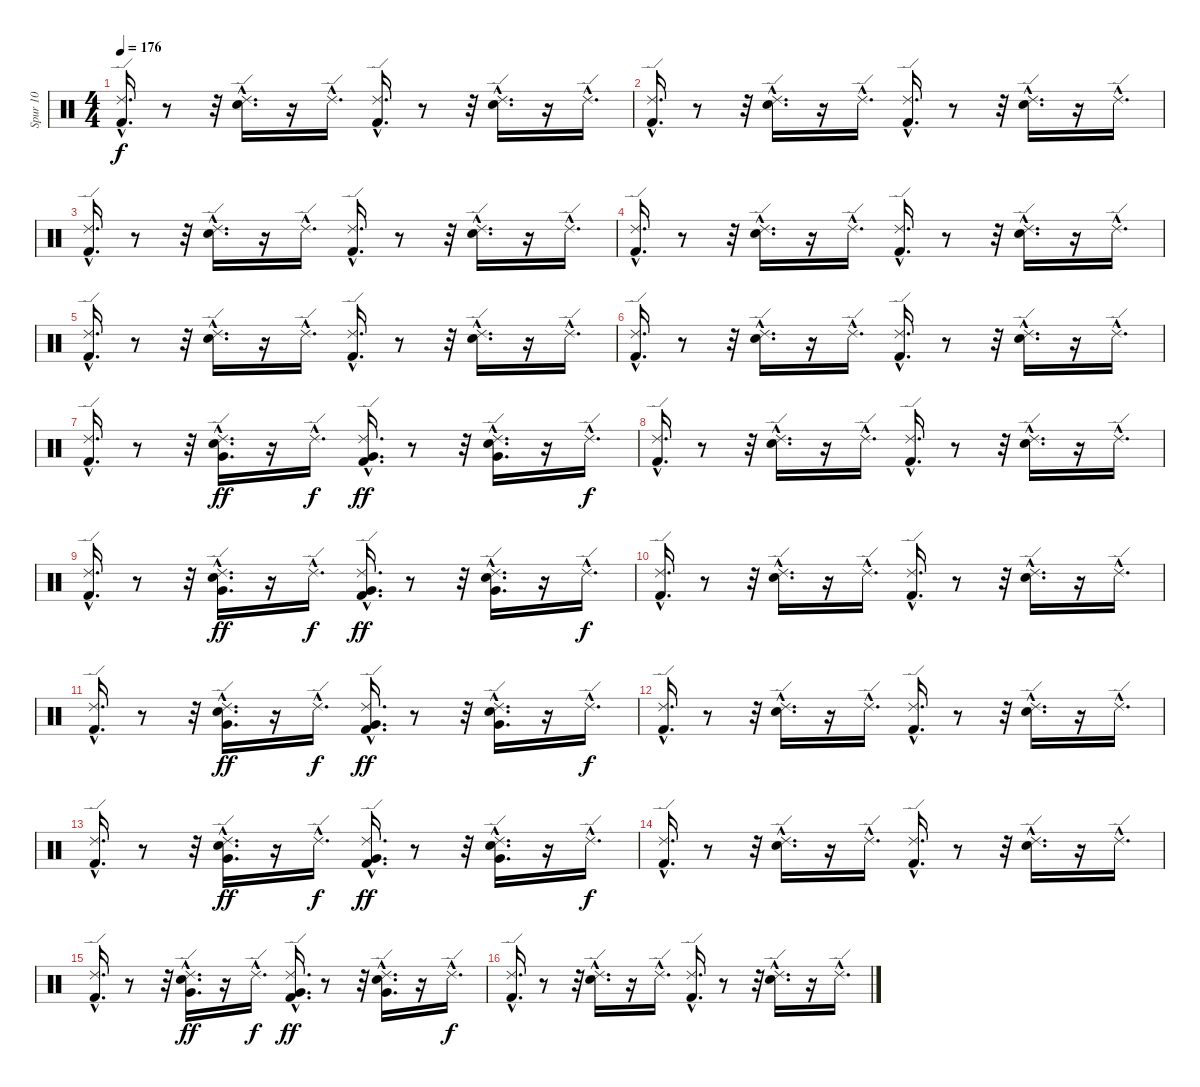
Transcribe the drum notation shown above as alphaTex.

\track ("Spur 10" "Spur 10") {instrument percussion}
\staff {score}
\articulation defaults
\ts (4 4)
\tempo 176
\clef neutral
\ks c
("Kick (hit) 2"{hac} "Ride (edge) 2"{hac}).16{d dy f} r.8 r.32 ("Snare (hit) 2"{hac} "Ride (edge) 2"{hac}).16{d} r.16 "Ride (edge) 2"{hac}.16{d} ("Kick (hit) 2"{hac} "Ride (edge) 2"{hac}).16{d} r.8 r.32 ("Snare (hit) 2"{hac} "Ride (edge) 2"{hac}).16{d} r.16 "Ride (edge) 2"{hac}.16{d} |
("Kick (hit) 2"{hac} "Ride (edge) 2"{hac}).16{d} r.8 r.32 ("Snare (hit) 2"{hac} "Ride (edge) 2"{hac}).16{d} r.16 "Ride (edge) 2"{hac}.16{d} ("Kick (hit) 2"{hac} "Ride (edge) 2"{hac}).16{d} r.8 r.32 ("Snare (hit) 2"{hac} "Ride (edge) 2"{hac}).16{d} r.16 "Ride (edge) 2"{hac}.16{d} |
("Kick (hit) 2"{hac} "Ride (edge) 2"{hac}).16{d} r.8 r.32 ("Snare (hit) 2"{hac} "Ride (edge) 2"{hac}).16{d} r.16 "Ride (edge) 2"{hac}.16{d} ("Kick (hit) 2"{hac} "Ride (edge) 2"{hac}).16{d} r.8 r.32 ("Snare (hit) 2"{hac} "Ride (edge) 2"{hac}).16{d} r.16 "Ride (edge) 2"{hac}.16{d} |
("Kick (hit) 2"{hac} "Ride (edge) 2"{hac}).16{d} r.8 r.32 ("Snare (hit) 2"{hac} "Ride (edge) 2"{hac}).16{d} r.16 "Ride (edge) 2"{hac}.16{d} ("Kick (hit) 2"{hac} "Ride (edge) 2"{hac}).16{d} r.8 r.32 ("Snare (hit) 2"{hac} "Ride (edge) 2"{hac}).16{d} r.16 "Ride (edge) 2"{hac}.16{d} |
("Kick (hit) 2"{hac} "Ride (edge) 2"{hac}).16{d} r.8 r.32 ("Snare (hit) 2"{hac} "Ride (edge) 2"{hac}).16{d} r.16 "Ride (edge) 2"{hac}.16{d} ("Kick (hit) 2"{hac} "Ride (edge) 2"{hac}).16{d} r.8 r.32 ("Snare (hit) 2"{hac} "Ride (edge) 2"{hac}).16{d} r.16 "Ride (edge) 2"{hac}.16{d} |
("Kick (hit) 2"{hac} "Ride (edge) 2"{hac}).16{d} r.8 r.32 ("Snare (hit) 2"{hac} "Ride (edge) 2"{hac}).16{d} r.16 "Ride (edge) 2"{hac}.16{d} ("Kick (hit) 2"{hac} "Ride (edge) 2"{hac}).16{d} r.8 r.32 ("Snare (hit) 2"{hac} "Ride (edge) 2"{hac}).16{d} r.16 "Ride (edge) 2"{hac}.16{d} |
("Kick (hit) 2"{hac} "Ride (edge) 2"{hac}).16{d} r.8 r.32 ("Snare (hit) 2"{hac} "Ride (edge) 2"{hac} "Very Low Tom (hit)"{hac}).16{d dy ff} r.16 "Ride (edge) 2"{hac}.16{d dy f} ("Kick (hit) 2"{hac} "Ride (edge) 2"{hac} "Very Low Tom (hit)"{hac}).16{d dy ff} r.8 r.32 ("Snare (hit) 2"{hac} "Ride (edge) 2"{hac} "Very Low Tom (hit)"{hac}).16{d} r.16 "Ride (edge) 2"{hac}.16{d dy f} |
("Ride (edge) 2"{hac} "Kick (hit) 2"{hac}).16{d} r.8 r.32 ("Ride (edge) 2"{hac} "Snare (hit) 2"{hac}).16{d} r.16 "Ride (edge) 2"{hac}.16{d} ("Ride (edge) 2"{hac} "Kick (hit) 2"{hac}).16{d} r.8 r.32 ("Ride (edge) 2"{hac} "Snare (hit) 2"{hac}).16{d} r.16 "Ride (edge) 2"{hac}.16{d} |
("Ride (edge) 2"{hac} "Kick (hit) 2"{hac}).16{d} r.8 r.32 ("Ride (edge) 2"{hac} "Snare (hit) 2"{hac} "Very Low Tom (hit)"{hac}).16{d dy ff} r.16 "Ride (edge) 2"{hac}.16{d dy f} ("Ride (edge) 2"{hac} "Kick (hit) 2"{hac} "Very Low Tom (hit)"{hac}).16{d dy ff} r.8 r.32 ("Ride (edge) 2"{hac} "Snare (hit) 2"{hac} "Very Low Tom (hit)"{hac}).16{d} r.16 "Ride (edge) 2"{hac}.16{d dy f} |
("Ride (edge) 2"{hac} "Kick (hit) 2"{hac}).16{d} r.8 r.32 ("Ride (edge) 2"{hac} "Snare (hit) 2"{hac}).16{d} r.16 "Ride (edge) 2"{hac}.16{d} ("Ride (edge) 2"{hac} "Kick (hit) 2"{hac}).16{d} r.8 r.32 ("Ride (edge) 2"{hac} "Snare (hit) 2"{hac}).16{d} r.16 "Ride (edge) 2"{hac}.16{d} |
("Ride (edge) 2"{hac} "Kick (hit) 2"{hac}).16{d} r.8 r.32 ("Ride (edge) 2"{hac} "Snare (hit) 2"{hac} "Very Low Tom (hit)"{hac}).16{d dy ff} r.16 "Ride (edge) 2"{hac}.16{d dy f} ("Ride (edge) 2"{hac} "Kick (hit) 2"{hac} "Very Low Tom (hit)"{hac}).16{d dy ff} r.8 r.32 ("Ride (edge) 2"{hac} "Snare (hit) 2"{hac} "Very Low Tom (hit)"{hac}).16{d} r.16 "Ride (edge) 2"{hac}.16{d dy f} |
("Ride (edge) 2"{hac} "Kick (hit) 2"{hac}).16{d} r.8 r.32 ("Ride (edge) 2"{hac} "Snare (hit) 2"{hac}).16{d} r.16 "Ride (edge) 2"{hac}.16{d} ("Ride (edge) 2"{hac} "Kick (hit) 2"{hac}).16{d} r.8 r.32 ("Ride (edge) 2"{hac} "Snare (hit) 2"{hac}).16{d} r.16 "Ride (edge) 2"{hac}.16{d} |
("Ride (edge) 2"{hac} "Kick (hit) 2"{hac}).16{d} r.8 r.32 ("Ride (edge) 2"{hac} "Snare (hit) 2"{hac} "Very Low Tom (hit)"{hac}).16{d dy ff} r.16 "Ride (edge) 2"{hac}.16{d dy f} ("Ride (edge) 2"{hac} "Kick (hit) 2"{hac} "Very Low Tom (hit)"{hac}).16{d dy ff} r.8 r.32 ("Ride (edge) 2"{hac} "Snare (hit) 2"{hac} "Very Low Tom (hit)"{hac}).16{d} r.16 "Ride (edge) 2"{hac}.16{d dy f} |
("Ride (edge) 2"{hac} "Kick (hit) 2"{hac}).16{d} r.8 r.32 ("Ride (edge) 2"{hac} "Snare (hit) 2"{hac}).16{d} r.16 "Ride (edge) 2"{hac}.16{d} ("Ride (edge) 2"{hac} "Kick (hit) 2"{hac}).16{d} r.8 r.32 ("Ride (edge) 2"{hac} "Snare (hit) 2"{hac}).16{d} r.16 "Ride (edge) 2"{hac}.16{d} |
("Ride (edge) 2"{hac} "Kick (hit) 2"{hac}).16{d} r.8 r.32 ("Ride (edge) 2"{hac} "Snare (hit) 2"{hac} "Very Low Tom (hit)"{hac}).16{d dy ff} r.16 "Ride (edge) 2"{hac}.16{d dy f} ("Ride (edge) 2"{hac} "Kick (hit) 2"{hac} "Very Low Tom (hit)"{hac}).16{d dy ff} r.8 r.32 ("Ride (edge) 2"{hac} "Snare (hit) 2"{hac} "Very Low Tom (hit)"{hac}).16{d} r.16 "Ride (edge) 2"{hac}.16{d dy f} |
("Ride (edge) 2"{hac} "Kick (hit) 2"{hac}).16{d} r.8 r.32 ("Ride (edge) 2"{hac} "Snare (hit) 2"{hac}).16{d} r.16 "Ride (edge) 2"{hac}.16{d} ("Ride (edge) 2"{hac} "Kick (hit) 2"{hac}).16{d} r.8 r.32 ("Ride (edge) 2"{hac} "Snare (hit) 2"{hac}).16{d} r.16 "Ride (edge) 2"{hac}.16{d}
